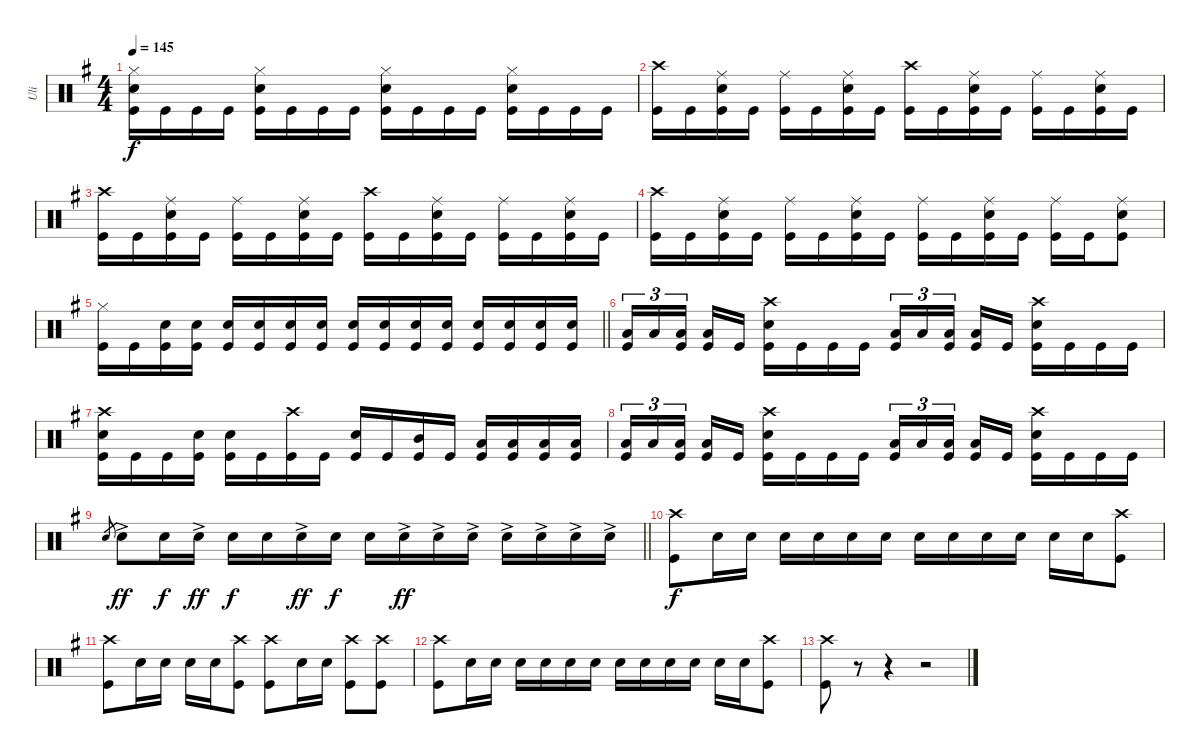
\track ("Uli" "Uli") {instrument percussion}
\staff {score}
\articulation defaults
\ts (4 4)
\tempo 145
\clef neutral
\ks eminor
("Hi-Hat (closed)" "Snare (hit) 2" "Kick (hit)").16{dy f} "Kick (hit)".16 "Kick (hit)".16 "Kick (hit)".16 ("Hi-Hat (closed)" "Snare (hit) 2" "Kick (hit)").16 "Kick (hit)".16 "Kick (hit)".16 "Kick (hit)".16 ("Hi-Hat (closed)" "Snare (hit) 2" "Kick (hit)").16 "Kick (hit)".16 "Kick (hit)".16 "Kick (hit)".16 ("Hi-Hat (closed)" "Snare (hit) 2" "Kick (hit)").16 "Kick (hit)".16 "Kick (hit)".16 "Kick (hit)".16 |
("Crash high (hit)" "Kick (hit)").16 "Kick (hit)".16 ("Ride (middle)" "Snare (hit) 2" "Kick (hit)").16 "Kick (hit)".16 ("Ride (middle)" "Kick (hit)").16 "Kick (hit)".16 ("Ride (middle)" "Snare (hit) 2" "Kick (hit)").16 "Kick (hit)".16 ("Crash high (hit)" "Kick (hit)").16 "Kick (hit)".16 ("Ride (middle)" "Snare (hit) 2" "Kick (hit)").16 "Kick (hit)".16 ("Ride (middle)" "Kick (hit)").16 "Kick (hit)".16 ("Ride (middle)" "Snare (hit) 2" "Kick (hit)").16 "Kick (hit)".16 |
("Crash high (hit)" "Kick (hit)").16 "Kick (hit)".16 ("Ride (middle)" "Snare (hit) 2" "Kick (hit)").16 "Kick (hit)".16 ("Ride (middle)" "Kick (hit)").16 "Kick (hit)".16 ("Ride (middle)" "Snare (hit) 2" "Kick (hit)").16 "Kick (hit)".16 ("Crash high (hit)" "Kick (hit)").16 "Kick (hit)".16 ("Ride (middle)" "Snare (hit) 2" "Kick (hit)").16 "Kick (hit)".16 ("Ride (middle)" "Kick (hit)").16 "Kick (hit)".16 ("Ride (middle)" "Snare (hit) 2" "Kick (hit)").16 "Kick (hit)".16 |
("Crash high (hit)" "Kick (hit)").16 "Kick (hit)".16 ("Ride (middle)" "Snare (hit) 2" "Kick (hit)").16 "Kick (hit)".16 ("Ride (middle)" "Kick (hit)").16 "Kick (hit)".16 ("Ride (middle)" "Snare (hit) 2" "Kick (hit)").16 "Kick (hit)".16 ("Ride (middle)" "Kick (hit)").16 "Kick (hit)".16 ("Ride (middle)" "Snare (hit) 2" "Kick (hit)").16 "Kick (hit)".16 ("Ride (middle)" "Kick (hit)").16 "Kick (hit)".16 ("Ride (middle)" "Snare (hit) 2" "Kick (hit)").8 |
\barLineRight lightlight
("Hi-Hat (closed)" "Kick (hit)").16 "Kick (hit)".16 ("Snare (hit) 2" "Kick (hit)").16 ("Snare (hit) 2" "Kick (hit)").16 ("Snare (hit) 2" "Kick (hit)").16 ("Snare (hit) 2" "Kick (hit)").16 ("Snare (hit) 2" "Kick (hit)").16 ("Snare (hit) 2" "Kick (hit)").16 ("Snare (hit) 2" "Kick (hit)").16 ("Snare (hit) 2" "Kick (hit)").16 ("Snare (hit) 2" "Kick (hit)").16 ("Snare (hit) 2" "Kick (hit)").16 ("Snare (hit) 2" "Kick (hit)").16 ("Snare (hit) 2" "Kick (hit)").16 ("Snare (hit) 2" "Kick (hit)").16 ("Snare (hit) 2" "Kick (hit)").16 |
("Low Tom (hit)" "Kick (hit)").16{tu (3 2)} "Low Tom (hit)".16{tu (3 2)} ("Low Tom (hit)" "Kick (hit)").16{tu (3 2) beam splitsecondary} ("Low Tom (hit)" "Kick (hit)").16 "Kick (hit)".16 ("Crash high (hit)" "Snare (hit) 2" "Kick (hit)").16 "Kick (hit)".16 "Kick (hit)".16 "Kick (hit)".16 ("Low Tom (hit)" "Kick (hit)").16{tu (3 2)} "Low Tom (hit)".16{tu (3 2)} ("Low Tom (hit)" "Kick (hit)").16{tu (3 2) beam splitsecondary} ("Low Tom (hit)" "Kick (hit)").16 "Kick (hit)".16 ("Crash high (hit)" "Snare (hit) 2" "Kick (hit)").16 "Kick (hit)".16 "Kick (hit)".16 "Kick (hit)".16 |
("Crash high (hit)" "Snare (hit) 2" "Kick (hit)").16 "Kick (hit)".16 "Kick (hit)".16 ("Snare (hit) 2" "Kick (hit)").16 ("Snare (hit) 2" "Kick (hit)").16 "Kick (hit)".16 ("Crash high (hit)" "Kick (hit)").16 "Kick (hit)".16 ("Snare (hit) 2" "Kick (hit)").16 "Kick (hit)".16 ("Mid Tom (hit)" "Kick (hit)").16 "Kick (hit)".16 ("Low Tom (hit)" "Kick (hit)").16 ("Low Tom (hit)" "Kick (hit)").16 ("Low Tom (hit)" "Kick (hit)").16 ("Low Tom (hit)" "Kick (hit)").16 |
("Low Tom (hit)" "Kick (hit)").16{tu (3 2)} "Low Tom (hit)".16{tu (3 2)} ("Low Tom (hit)" "Kick (hit)").16{tu (3 2) beam splitsecondary} ("Low Tom (hit)" "Kick (hit)").16 "Kick (hit)".16 ("Crash high (hit)" "Snare (hit) 2" "Kick (hit)").16 "Kick (hit)".16 "Kick (hit)".16 "Kick (hit)".16 ("Low Tom (hit)" "Kick (hit)").16{tu (3 2)} "Low Tom (hit)".16{tu (3 2)} ("Low Tom (hit)" "Kick (hit)").16{tu (3 2) beam splitsecondary} ("Low Tom (hit)" "Kick (hit)").16 "Kick (hit)".16 ("Crash high (hit)" "Snare (hit) 2" "Kick (hit)").16 "Kick (hit)".16 "Kick (hit)".16 "Kick (hit)".16 |
\barLineRight lightlight "Snare (hit) 2".8{gr} "Snare (hit) 2"{ac}.8{dy ff} "Snare (hit) 2".16{dy f} "Snare (hit) 2"{ac}.16{dy ff} "Snare (hit) 2".16{dy f} "Snare (hit) 2".16 "Snare (hit) 2"{ac}.16{dy ff} "Snare (hit) 2".16{dy f} "Snare (hit) 2".16 "Snare (hit) 2"{ac}.16{dy ff} "Snare (hit) 2"{ac}.16 "Snare (hit) 2"{ac}.16 "Snare (hit) 2"{ac}.16 "Snare (hit) 2"{ac}.16 "Snare (hit) 2"{ac}.16 "Snare (hit) 2"{ac}.16
|
("Crash high (hit)" "Kick (hit)").8{dy f} "Snare (hit) 2".16 "Snare (hit) 2".16 "Snare (hit) 2".16 "Snare (hit) 2".16 "Snare (hit) 2".16 "Snare (hit) 2".16 "Snare (hit) 2".16 "Snare (hit) 2".16 "Snare (hit) 2".16 "Snare (hit) 2".16 "Snare (hit) 2".16 "Snare (hit) 2".16 ("Crash high (hit)" "Kick (hit)").8 |
("Crash high (hit)" "Kick (hit)").8 "Snare (hit) 2".16 "Snare (hit) 2".16 "Snare (hit) 2".16 "Snare (hit) 2".16 ("Crash high (hit)" "Kick (hit)").8 ("Crash high (hit)" "Kick (hit)").8 "Snare (hit) 2".16 "Snare (hit) 2".16 ("Crash high (hit)" "Kick (hit)").8 ("Crash high (hit)" "Kick (hit)").8 |
("Crash high (hit)" "Kick (hit)").8 "Snare (hit) 2".16 "Snare (hit) 2".16 "Snare (hit) 2".16 "Snare (hit) 2".16 "Snare (hit) 2".16 "Snare (hit) 2".16 "Snare (hit) 2".16 "Snare (hit) 2".16 "Snare (hit) 2".16 "Snare (hit) 2".16 "Snare (hit) 2".16 "Snare (hit) 2".16 ("Crash high (hit)" "Kick (hit)").8 |
("Crash high (hit)" "Kick (hit)").8 r.8 r.4 r.2
